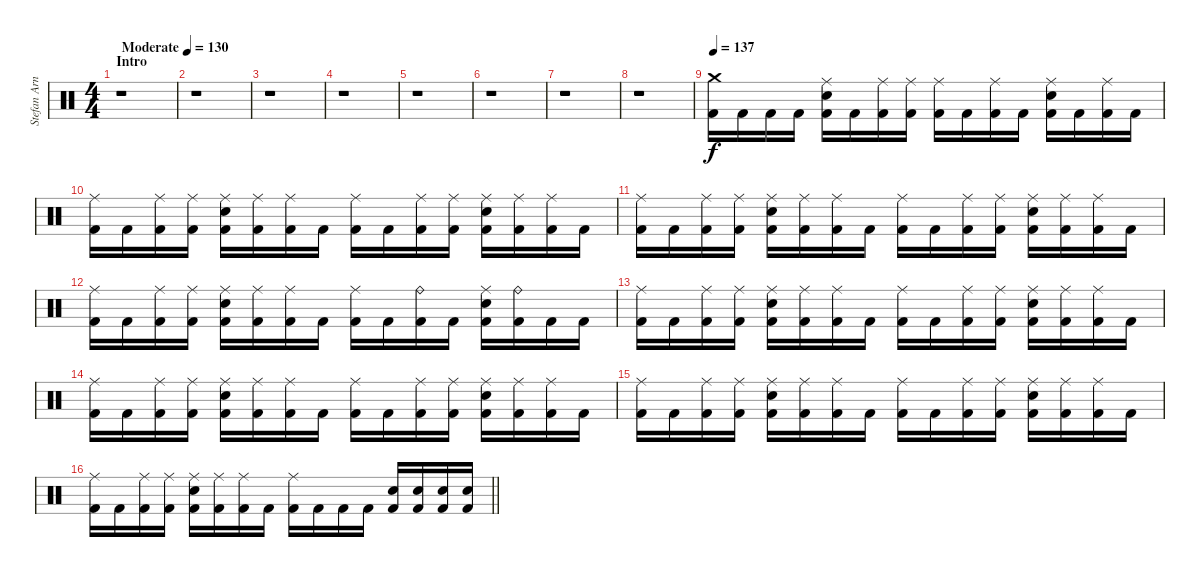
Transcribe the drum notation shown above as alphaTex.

\track ("Stefan Arnold" "Stefan Arn") {instrument percussion}
\staff {score}
\articulation defaults
\ts (4 4)
\section ("" "Intro")
\tempo (130 "Moderate")
\clef neutral
\ks c
r.1{dy f} |
r.1 |
r.1 |
r.1 |
r.1 |
r.1 |
r.1 |
r.1 |
\tempo 137
("Crash medium (hit)" "Kick (hit) 2").16 "Kick (hit) 2".16 "Kick (hit) 2".16 "Kick (hit) 2".16 ("Ride (middle)" "Electric Snare (hit)" "Kick (hit) 2").16 "Kick (hit) 2".16 ("Ride (middle)" "Kick (hit) 2").16 ("Ride (middle)" "Kick (hit) 2").16 ("Ride (middle)" "Kick (hit) 2").16 "Kick (hit) 2".16 ("Ride (middle)" "Kick (hit) 2").16 "Kick (hit) 2".16 ("Ride (middle)" "Electric Snare (hit)" "Kick (hit) 2").16 "Kick (hit) 2".16 ("Ride (middle)" "Kick (hit) 2").16 "Kick (hit) 2".16 |
("Ride (middle)" "Kick (hit) 2").16 "Kick (hit) 2".16 ("Ride (middle)" "Kick (hit) 2").16 ("Ride (middle)" "Kick (hit) 2").16 ("Ride (middle)" "Electric Snare (hit)" "Kick (hit) 2").16 ("Ride (middle)" "Kick (hit) 2").16 ("Ride (middle)" "Kick (hit) 2").16 "Kick (hit) 2".16 ("Ride (middle)" "Kick (hit) 2").16 "Kick (hit) 2".16 ("Ride (middle)" "Kick (hit) 2").16 ("Ride (middle)" "Kick (hit) 2").16 ("Ride (middle)" "Electric Snare (hit)" "Kick (hit) 2").16 ("Ride (middle)" "Kick (hit) 2").16 ("Ride (middle)" "Kick (hit) 2").16 "Kick (hit) 2".16 |
("Ride (middle)" "Kick (hit) 2").16 "Kick (hit) 2".16 ("Ride (middle)" "Kick (hit) 2").16 ("Ride (middle)" "Kick (hit) 2").16 ("Ride (middle)" "Electric Snare (hit)" "Kick (hit) 2").16 ("Ride (middle)" "Kick (hit) 2").16 ("Ride (middle)" "Kick (hit) 2").16 "Kick (hit) 2".16 ("Ride (middle)" "Kick (hit) 2").16 "Kick (hit) 2".16 ("Ride (middle)" "Kick (hit) 2").16 ("Ride (middle)" "Kick (hit) 2").16 ("Ride (middle)" "Electric Snare (hit)" "Kick (hit) 2").16 ("Ride (middle)" "Kick (hit) 2").16 ("Ride (middle)" "Kick (hit) 2").16 "Kick (hit) 2".16 |
("Ride (middle)" "Kick (hit) 2").16 "Kick (hit) 2".16 ("Ride (middle)" "Kick (hit) 2").16 ("Ride (middle)" "Kick (hit) 2").16 ("Ride (middle)" "Electric Snare (hit)" "Kick (hit) 2").16 ("Ride (middle)" "Kick (hit) 2").16 ("Ride (middle)" "Kick (hit) 2").16 "Kick (hit) 2".16 ("Ride (middle)" "Kick (hit) 2").16 "Kick (hit) 2".16 ("Ride (bell)" "Kick (hit) 2").16 "Kick (hit) 2".16 ("Ride (middle)" "Electric Snare (hit)" "Kick (hit) 2").16 ("Ride (bell)" "Kick (hit) 2").16 "Kick (hit) 2".16 "Kick (hit) 2".16 |
("Ride (middle)" "Kick (hit) 2").16 "Kick (hit) 2".16 ("Ride (middle)" "Kick (hit) 2").16 ("Ride (middle)" "Kick (hit) 2").16 ("Ride (middle)" "Electric Snare (hit)" "Kick (hit) 2").16 ("Ride (middle)" "Kick (hit) 2").16 ("Ride (middle)" "Kick (hit) 2").16 "Kick (hit) 2".16 ("Ride (middle)" "Kick (hit) 2").16 "Kick (hit) 2".16 ("Ride (middle)" "Kick (hit) 2").16 ("Ride (middle)" "Kick (hit) 2").16 ("Ride (middle)" "Electric Snare (hit)" "Kick (hit) 2").16 ("Ride (middle)" "Kick (hit) 2").16 ("Ride (middle)" "Kick (hit) 2").16 "Kick (hit) 2".16 |
("Ride (middle)" "Kick (hit) 2").16 "Kick (hit) 2".16 ("Ride (middle)" "Kick (hit) 2").16 ("Ride (middle)" "Kick (hit) 2").16 ("Ride (middle)" "Electric Snare (hit)" "Kick (hit) 2").16 ("Ride (middle)" "Kick (hit) 2").16 ("Ride (middle)" "Kick (hit) 2").16 "Kick (hit) 2".16 ("Ride (middle)" "Kick (hit) 2").16 "Kick (hit) 2".16 ("Ride (middle)" "Kick (hit) 2").16 ("Ride (middle)" "Kick (hit) 2").16 ("Ride (middle)" "Electric Snare (hit)" "Kick (hit) 2").16 ("Ride (middle)" "Kick (hit) 2").16 ("Ride (middle)" "Kick (hit) 2").16 "Kick (hit) 2".16 |
("Ride (middle)" "Kick (hit) 2").16 "Kick (hit) 2".16 ("Ride (middle)" "Kick (hit) 2").16 ("Ride (middle)" "Kick (hit) 2").16 ("Ride (middle)" "Electric Snare (hit)" "Kick (hit) 2").16 ("Ride (middle)" "Kick (hit) 2").16 ("Ride (middle)" "Kick (hit) 2").16 "Kick (hit) 2".16 ("Ride (middle)" "Kick (hit) 2").16 "Kick (hit) 2".16 ("Ride (middle)" "Kick (hit) 2").16 ("Ride (middle)" "Kick (hit) 2").16 ("Ride (middle)" "Electric Snare (hit)" "Kick (hit) 2").16 ("Ride (middle)" "Kick (hit) 2").16 ("Ride (middle)" "Kick (hit) 2").16 "Kick (hit) 2".16 |
\barLineRight lightlight
("Ride (middle)" "Kick (hit) 2").16 "Kick (hit) 2".16 ("Ride (middle)" "Kick (hit) 2").16 ("Ride (middle)" "Kick (hit) 2").16 ("Ride (middle)" "Electric Snare (hit)" "Kick (hit) 2").16 ("Ride (middle)" "Kick (hit) 2").16 ("Ride (middle)" "Kick (hit) 2").16 "Kick (hit) 2".16 ("Ride (middle)" "Kick (hit) 2").16 "Kick (hit) 2".16 "Kick (hit) 2".16 "Kick (hit) 2".16 ("Electric Snare (hit)" "Kick (hit) 2").16 ("Electric Snare (hit)" "Kick (hit) 2").16 ("Electric Snare (hit)" "Kick (hit) 2").16 ("Electric Snare (hit)" "Kick (hit) 2").16
